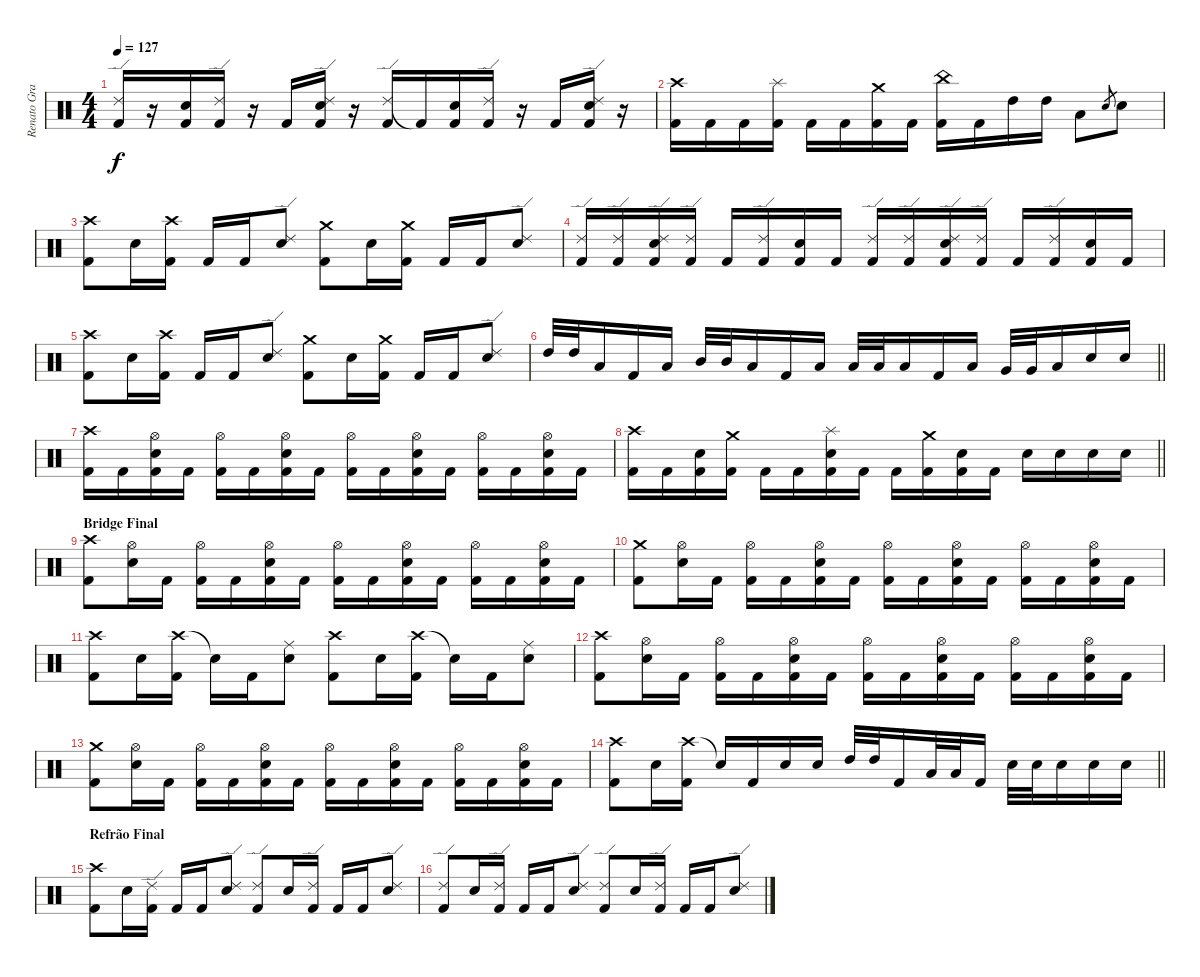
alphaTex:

\track ("Renato Graccia (drums)" "Renato Gra") {instrument percussion}
\staff {score}
\articulation defaults
\ts (4 4)
\tempo 127
\clef neutral
\ks c
("Ride (edge) 2" "Kick (hit) 2").16{dy f} r.16 ("Snare (hit) 2" "Kick (hit) 2").16 ("Ride (edge) 2" "Kick (hit) 2").16 r.16 "Kick (hit) 2".16 ("Ride (edge) 2" "Snare (hit) 2" "Kick (hit) 2").16 r.16 ("Ride (edge) 2" "Kick (hit) 2").16 "Kick (hit) 2"{t}.16 ("Snare (hit) 2" "Kick (hit) 2").16 ("Ride (edge) 2" "Kick (hit) 2").16 r.16 "Kick (hit) 2".16 ("Ride (edge) 2" "Snare (hit) 2" "Kick (hit) 2").16 r.16 |
("Crash high (hit)" "Kick (hit) 2").16 "Kick (hit) 2".16 "Kick (hit) 2".16 ("Splash (hit)" "Kick (hit) 2").16 "Kick (hit) 2".16 "Kick (hit) 2".16 ("Crash medium (hit)" "Kick (hit) 2").16 "Kick (hit) 2".16 ("China (hit)" "Kick (hit) 2").16 "Kick (hit) 2".16 "High Tom (hit)".16 "High Tom (hit)".16 "Low Floor Tom (hit)".8 "Snare (hit) 2".8{gr} "Snare (hit) 2".8 |
("Crash high (hit)" "Kick (hit) 2").8 "Snare (hit) 2".16 ("Crash high (hit)" "Kick (hit) 2").16 "Kick (hit) 2".16 "Kick (hit) 2".16 ("Ride (edge) 2" "Snare (hit) 2").8 ("Crash medium (hit)" "Kick (hit) 2").8 "Snare (hit) 2".16 ("Crash medium (hit)" "Kick (hit) 2").16 "Kick (hit) 2".16 "Kick (hit) 2".16 ("Ride (edge) 2" "Snare (hit) 2").8 |
("Ride (edge) 2" "Kick (hit) 2").16 ("Ride (edge) 2" "Kick (hit) 2").16 ("Ride (edge) 2" "Snare (hit) 2" "Kick (hit) 2").16 ("Ride (edge) 2" "Kick (hit) 2").16 "Kick (hit) 2".16 ("Ride (edge) 2" "Kick (hit) 2").16 ("Snare (hit) 2" "Kick (hit) 2").16 "Kick (hit) 2".16 ("Ride (edge) 2" "Kick (hit) 2").16 ("Ride (edge) 2" "Kick (hit) 2").16 ("Ride (edge) 2" "Snare (hit) 2" "Kick (hit) 2").16 ("Ride (edge) 2" "Kick (hit) 2").16 "Kick (hit) 2".16 ("Ride (edge) 2" "Kick (hit) 2").16 ("Snare (hit) 2" "Kick (hit) 2").16 "Kick (hit) 2".16 |
("Crash high (hit)" "Kick (hit) 2").8 "Snare (hit) 2".16 ("Crash high (hit)" "Kick (hit) 2").16 "Kick (hit) 2".16 "Kick (hit) 2".16 ("Ride (edge) 2" "Snare (hit) 2").8 ("Crash medium (hit)" "Kick (hit) 2").8 "Snare (hit) 2".16 ("Crash medium (hit)" "Kick (hit) 2").16 "Kick (hit) 2".16 "Kick (hit) 2".16 ("Ride (edge) 2" "Snare (hit) 2").8 |
\barLineRight lightlight "High Tom (hit)".32 "High Tom (hit)".32 "Low Floor Tom (hit)".16 "Kick (hit) 2".16 "Low Floor Tom (hit)".16 "Mid Tom (hit)".32 "Mid Tom (hit)".32 "Low Floor Tom (hit)".16 "Kick (hit) 2".16 "Low Floor Tom (hit)".16 "Low Tom (hit)".32 "Low Tom (hit)".32 "Low Floor Tom (hit)".16 "Kick (hit) 2".16 "Low Floor Tom (hit)".16 "Very Low Tom (hit)".32 "Very Low Tom (hit)".32 "Low Floor Tom (hit)".16 "Snare (hit) 2".16 "Snare (hit) 2".16
|
\section ("" "")
("Crash high (hit)" "Kick (hit) 2").16 "Kick (hit) 2".16 ("Hi-Hat (open)" "Snare (hit) 2" "Kick (hit) 2").16 "Kick (hit) 2".16 ("Hi-Hat (open)" "Kick (hit) 2").16 "Kick (hit) 2".16 ("Hi-Hat (open)" "Snare (hit) 2" "Kick (hit) 2").16 "Kick (hit) 2".16 ("Hi-Hat (open)" "Kick (hit) 2").16 "Kick (hit) 2".16 ("Hi-Hat (open)" "Snare (hit) 2" "Kick (hit) 2").16 "Kick (hit) 2".16 ("Hi-Hat (open)" "Kick (hit) 2").16 "Kick (hit) 2".16 ("Hi-Hat (open)" "Snare (hit) 2" "Kick (hit) 2").16 "Kick (hit) 2".16 |
\barLineRight lightlight
("Crash high (hit)" "Kick (hit) 2").16 "Kick (hit) 2".16 ("Snare (hit) 2" "Kick (hit) 2").16 ("Crash medium (hit)" "Kick (hit) 2").16 "Kick (hit) 2".16 "Kick (hit) 2".16 ("Splash (hit)" "Snare (hit) 2" "Kick (hit) 2").16 "Kick (hit) 2".16 "Kick (hit) 2".16 ("Crash medium (hit)" "Kick (hit) 2").16 ("Snare (hit) 2" "Kick (hit) 2").16 "Kick (hit) 2".16 "Snare (hit) 2".16 "Snare (hit) 2".16 "Snare (hit) 2".16 "Snare (hit) 2".16 |
\section ("" "Bridge Final")
("Crash high (hit)" "Kick (hit) 2").8 ("Hi-Hat (open)" "Snare (hit) 2").16 "Kick (hit) 2".16 ("Hi-Hat (open)" "Kick (hit) 2").16 "Kick (hit) 2".16 ("Hi-Hat (open)" "Snare (hit) 2" "Kick (hit) 2").16 "Kick (hit) 2".16 ("Hi-Hat (open)" "Kick (hit) 2").16 "Kick (hit) 2".16 ("Hi-Hat (open)" "Snare (hit) 2" "Kick (hit) 2").16 "Kick (hit) 2".16 ("Hi-Hat (open)" "Kick (hit) 2").16 "Kick (hit) 2".16 ("Hi-Hat (open)" "Snare (hit) 2" "Kick (hit) 2").16 "Kick (hit) 2".16 |
("Crash medium (hit)" "Kick (hit) 2").8 ("Hi-Hat (open)" "Snare (hit) 2").16 "Kick (hit) 2".16 ("Hi-Hat (open)" "Kick (hit) 2").16 "Kick (hit) 2".16 ("Hi-Hat (open)" "Snare (hit) 2" "Kick (hit) 2").16 "Kick (hit) 2".16 ("Hi-Hat (open)" "Kick (hit) 2").16 "Kick (hit) 2".16 ("Hi-Hat (open)" "Snare (hit) 2" "Kick (hit) 2").16 "Kick (hit) 2".16 ("Hi-Hat (open)" "Kick (hit) 2").16 "Kick (hit) 2".16 ("Hi-Hat (open)" "Snare (hit) 2" "Kick (hit) 2").16 "Kick (hit) 2".16 |
("Crash high (hit)" "Kick (hit) 2").8 "Snare (hit) 2".16 ("Crash high (hit)" "Kick (hit) 2").16 "Snare (hit)"{t}.16 "Kick (hit) 2".16 ("Ride (middle)" "Snare (hit) 2").8 ("Crash high (hit)" "Kick (hit) 2").8 "Snare (hit) 2".16 ("Crash high (hit)" "Kick (hit) 2").16 "Snare (hit)"{t}.16 "Kick (hit) 2".16 ("Ride (middle)" "Snare (hit) 2").8 |
("Crash high (hit)" "Kick (hit) 2").8 ("Hi-Hat (open)" "Snare (hit) 2").16 "Kick (hit) 2".16 ("Hi-Hat (open)" "Kick (hit) 2").16 "Kick (hit) 2".16 ("Hi-Hat (open)" "Snare (hit) 2" "Kick (hit) 2").16 "Kick (hit) 2".16 ("Hi-Hat (open)" "Kick (hit) 2").16 "Kick (hit) 2".16 ("Hi-Hat (open)" "Snare (hit) 2" "Kick (hit) 2").16 "Kick (hit) 2".16 ("Hi-Hat (open)" "Kick (hit) 2").16 "Kick (hit) 2".16 ("Hi-Hat (open)" "Snare (hit) 2" "Kick (hit) 2").16 "Kick (hit) 2".16 |
("Crash medium (hit)" "Kick (hit) 2").8 ("Hi-Hat (open)" "Snare (hit) 2").16 "Kick (hit) 2".16 ("Hi-Hat (open)" "Kick (hit) 2").16 "Kick (hit) 2".16 ("Hi-Hat (open)" "Snare (hit) 2" "Kick (hit) 2").16 "Kick (hit) 2".16 ("Hi-Hat (open)" "Kick (hit) 2").16 "Kick (hit) 2".16 ("Hi-Hat (open)" "Snare (hit) 2" "Kick (hit) 2").16 "Kick (hit) 2".16 ("Hi-Hat (open)" "Kick (hit) 2").16 "Kick (hit) 2".16 ("Hi-Hat (open)" "Snare (hit) 2" "Kick (hit) 2").16 "Kick (hit) 2".16 |
\barLineRight lightlight
("Crash high (hit)" "Kick (hit) 2").8 "Snare (hit) 2".16 ("Crash high (hit)" "Kick (hit) 2").16 "Snare (hit)"{t}.16 "Kick (hit) 2".16 "Snare (hit) 2".16 "Snare (hit) 2".16 "High Tom (hit)".32 "High Tom (hit)".32 "Kick (hit) 2".16 "Low Tom (hit)".32 "Low Tom (hit)".32 "Kick (hit) 2".16 "Snare (hit) 2".32 "Snare (hit) 2".32 "Snare (hit) 2".16 "Snare (hit) 2".16 "Snare (hit) 2".16 |
\section ("" "Refrão Final")
("Crash high (hit)" "Kick (hit) 2").8 "Snare (hit) 2".16 ("Ride (edge) 2" "Kick (hit) 2").16 "Kick (hit) 2".16 "Kick (hit) 2".16 ("Ride (edge) 2" "Snare (hit) 2").8 ("Ride (edge) 2" "Kick (hit) 2").8 "Snare (hit) 2".16 ("Ride (edge) 2" "Kick (hit) 2").16 "Kick (hit) 2".16 "Kick (hit) 2".16 ("Ride (edge) 2" "Snare (hit) 2").8 |
("Ride (edge) 2" "Kick (hit) 2").8 "Snare (hit) 2".16 ("Ride (edge) 2" "Kick (hit) 2").16 "Kick (hit) 2".16 "Kick (hit) 2".16 ("Ride (edge) 2" "Snare (hit) 2").8 ("Ride (edge) 2" "Kick (hit) 2").8 "Snare (hit) 2".16 ("Ride (edge) 2" "Kick (hit) 2").16 "Kick (hit) 2".16 "Kick (hit) 2".16 ("Ride (edge) 2" "Snare (hit) 2").8
